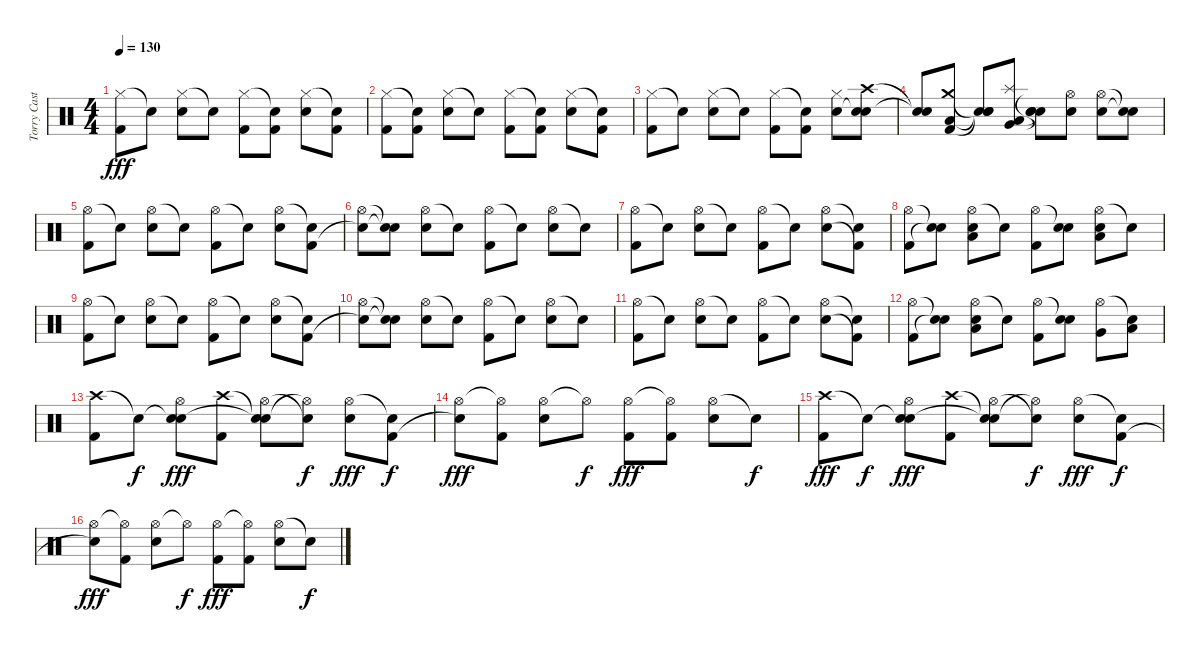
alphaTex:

\track ("Torry Castellano" "Torry Cast") {instrument percussion}
\staff {score}
\articulation defaults
\ts (4 4)
\tempo 130
\clef neutral
\ks c
("Hi-Hat (closed)" "Kick (hit) 2").8{dy fff} "Snare (hit)"{t}.8 ("Hi-Hat (closed)" "Electric Snare (hit)").8 "Snare (hit)"{t}.8 ("Hi-Hat (closed)" "Kick (hit) 2").8 ("Snare (hit)"{t} "Kick (hit) 2").8 ("Hi-Hat (closed)" "Electric Snare (hit)").8 ("Snare (hit)"{t} "Kick (hit) 2").8 |
("Hi-Hat (closed)" "Kick (hit) 2").8 ("Snare (hit)"{t} "Kick (hit) 2").8 ("Hi-Hat (closed)" "Electric Snare (hit)").8 "Snare (hit)"{t}.8 ("Hi-Hat (closed)" "Kick (hit) 2").8 ("Snare (hit)"{t} "Kick (hit) 2").8 ("Hi-Hat (closed)" "Electric Snare (hit)").8 ("Snare (hit)"{t} "Kick (hit) 2").8 |
("Hi-Hat (closed)" "Kick (hit) 2").8 "Snare (hit)"{t}.8 ("Hi-Hat (closed)" "Electric Snare (hit)").8 "Snare (hit)"{t}.8 ("Hi-Hat (closed)" "Kick (hit) 2").8 ("Snare (hit)"{t} "Kick (hit) 2").8 ("Hi-Hat (closed)" "Electric Snare (hit)").8 ("Crash high (hit)" "Snare (hit)"{t} "Electric Snare (hit)").8 |
("Snare (hit)"{t} "Snare (hit)"{t}).8 ("Crash medium (hit)" "Low Floor Tom (hit)" "Kick (hit) 2").8 ("Snare (hit)"{t} "Snare (hit)"{t} "Snare (hit)"{t}).8 ("Splash (hit)" "Very Low Tom (hit)" "Low Floor Tom (hit)").8 ("Snare (hit)"{t} "Snare (hit)"{t} "Snare (hit)"{t}).8 ("Hi-Hat (open)" "Electric Snare (hit)").8 ("Hi-Hat (open)" "Electric Snare (hit)").8 ("Snare (hit)"{t} "Snare (hit)"{t}).8 |
("Hi-Hat (open)" "Kick (hit) 2").8 "Snare (hit)"{t}.8 ("Hi-Hat (open)" "Electric Snare (hit)").8 "Snare (hit)"{t}.8 ("Hi-Hat (open)" "Kick (hit) 2").8 "Snare (hit)"{t}.8 ("Hi-Hat (open)" "Electric Snare (hit)").8 ("Snare (hit)"{t} "Kick (hit) 2").8 |
("Hi-Hat (open)" "Snare (hit)"{t}).8 ("Snare (hit)"{t} "Electric Snare (hit)"{t}).8 ("Hi-Hat (open)" "Electric Snare (hit)").8 "Snare (hit)"{t}.8 ("Hi-Hat (open)" "Kick (hit) 2").8 "Snare (hit)"{t}.8 ("Hi-Hat (open)" "Electric Snare (hit)").8 "Snare (hit)"{t}.8 |
("Hi-Hat (open)" "Kick (hit) 2").8 "Snare (hit)"{t}.8 ("Hi-Hat (open)" "Electric Snare (hit)").8 "Snare (hit)"{t}.8 ("Hi-Hat (open)" "Kick (hit) 2").8 "Snare (hit)"{t}.8 ("Hi-Hat (open)" "Electric Snare (hit)").8 ("Snare (hit)"{t} "Kick (hit) 2"{t}).8 |
("Hi-Hat (open)" "Kick (hit) 2").8 ("Snare (hit)"{t} "Electric Snare (hit)"{t}).8 ("Hi-Hat (open)" "Electric Snare (hit)" "Low Floor Tom (hit)").8 "Snare (hit)"{t}.8 ("Hi-Hat (open)" "Kick (hit) 2").8 ("Snare (hit)"{t} "Electric Snare (hit)").8 ("Hi-Hat (open)" "Electric Snare (hit)" "Low Floor Tom (hit)").8 "Snare (hit)"{t}.8 |
("Hi-Hat (open)" "Kick (hit) 2").8 "Snare (hit)"{t}.8 ("Hi-Hat (open)" "Electric Snare (hit)").8 "Snare (hit)"{t}.8 ("Hi-Hat (open)" "Kick (hit) 2").8 "Snare (hit)"{t}.8 ("Hi-Hat (open)" "Electric Snare (hit)").8 ("Snare (hit)"{t} "Kick (hit) 2").8 |
("Hi-Hat (open)" "Snare (hit)"{t}).8 ("Snare (hit)"{t} "Electric Snare (hit)"{t}).8 ("Hi-Hat (open)" "Electric Snare (hit)").8 "Snare (hit)"{t}.8 ("Hi-Hat (open)" "Kick (hit) 2").8 "Snare (hit)"{t}.8 ("Hi-Hat (open)" "Electric Snare (hit)").8 "Snare (hit)"{t}.8 |
("Hi-Hat (open)" "Kick (hit) 2").8 "Snare (hit)"{t}.8 ("Hi-Hat (open)" "Electric Snare (hit)").8 "Snare (hit)"{t}.8 ("Hi-Hat (open)" "Kick (hit) 2").8 "Snare (hit)"{t}.8 ("Hi-Hat (open)" "Electric Snare (hit)").8 ("Snare (hit)"{t} "Kick (hit) 2"{t}).8 |
("Hi-Hat (open)" "Kick (hit) 2").8 ("Snare (hit)"{t} "Electric Snare (hit)"{t}).8 ("Hi-Hat (open)" "Electric Snare (hit)" "Low Floor Tom (hit)").8 "Snare (hit)"{t}.8 ("Hi-Hat (open)" "Kick (hit) 2").8 ("Snare (hit)"{t} "Electric Snare (hit)").8 ("Hi-Hat (open)" "Very Low Tom (hit)").8 ("Snare (hit)"{t} "Low Floor Tom (hit)").8 |
("Crash high (hit)" "Kick (hit) 2").8 "Snare (hit)"{t}.8{dy f} ("Snare (hit)"{t} "Hi-Hat (open)" "Electric Snare (hit)").8{dy fff} ("Crash high (hit)" "Kick (hit) 2").8 ("Snare (hit)"{t} "Hi-Hat (open)" "Snare (hit)"{t}).8 ("Hi-Hat (open)"{t} "Electric Snare (hit)"{t}).8{dy f} ("Hi-Hat (open)" "Electric Snare (hit)").8{dy fff} ("Snare (hit)"{t} "Kick (hit) 2").8{dy f} |
("Hi-Hat (open)" "Snare (hit)"{t}).8{dy fff} ("Hi-Hat (open)"{t} "Kick (hit) 2").8 ("Hi-Hat (open)" "Electric Snare (hit)").8 "Hi-Hat (open)"{t}.8{dy f} ("Hi-Hat (open)" "Kick (hit) 2").8{dy fff} ("Hi-Hat (open)"{t} "Kick (hit) 2").8 ("Hi-Hat (open)" "Electric Snare (hit)").8 "Snare (hit)"{t}.8{dy f} |
("Crash high (hit)" "Kick (hit) 2").8{dy fff} "Snare (hit)"{t}.8{dy f} ("Snare (hit)"{t} "Hi-Hat (open)" "Electric Snare (hit)").8{dy fff} ("Crash high (hit)" "Kick (hit) 2").8 ("Snare (hit)"{t} "Hi-Hat (open)" "Snare (hit)"{t}).8 ("Hi-Hat (open)"{t} "Electric Snare (hit)"{t}).8{dy f} ("Hi-Hat (open)" "Electric Snare (hit)").8{dy fff} ("Snare (hit)"{t} "Kick (hit) 2").8{dy f} |
("Hi-Hat (open)" "Snare (hit)"{t}).8{dy fff} ("Hi-Hat (open)"{t} "Kick (hit) 2").8 ("Hi-Hat (open)" "Electric Snare (hit)").8 "Hi-Hat (open)"{t}.8{dy f} ("Hi-Hat (open)" "Kick (hit) 2").8{dy fff} ("Hi-Hat (open)"{t} "Kick (hit) 2").8 ("Hi-Hat (open)" "Electric Snare (hit)").8 "Snare (hit)"{t}.8{dy f}
